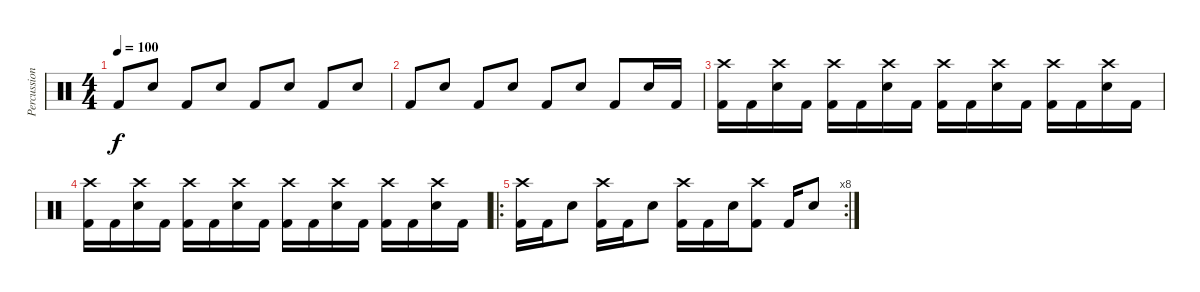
\track ("Percussion" "Percussion") {instrument percussion}
\staff {score}
\articulation defaults
\ts (4 4)
\tempo 100
\clef neutral
\ks c "Kick (hit) 2".8{dy f} "Snare (hit) 2".8 "Kick (hit) 2".8 "Snare (hit) 2".8 "Kick (hit) 2".8 "Snare (hit) 2".8 "Kick (hit) 2".8 "Snare (hit) 2".8
|
"Kick (hit) 2".8 "Snare (hit) 2".8 "Kick (hit) 2".8 "Snare (hit) 2".8 "Kick (hit) 2".8 "Snare (hit) 2".8 "Kick (hit) 2".8 "Snare (hit) 2".16 "Kick (hit) 2".16 |
("Crash high (hit)" "Kick (hit) 2").16 "Kick (hit) 2".16 ("Crash high (hit)" "Snare (hit) 2").16 "Kick (hit) 2".16 ("Crash high (hit)" "Kick (hit) 2").16 "Kick (hit) 2".16 ("Crash high (hit)" "Snare (hit) 2").16 "Kick (hit) 2".16 ("Crash high (hit)" "Kick (hit) 2").16 "Kick (hit) 2".16 ("Crash high (hit)" "Snare (hit) 2").16 "Kick (hit) 2".16 ("Crash high (hit)" "Kick (hit) 2").16 "Kick (hit) 2".16 ("Crash high (hit)" "Snare (hit) 2").16 "Kick (hit) 2".16 |
("Crash high (hit)" "Kick (hit) 2").16 "Kick (hit) 2".16 ("Crash high (hit)" "Snare (hit) 2").16 "Kick (hit) 2".16 ("Crash high (hit)" "Kick (hit) 2").16 "Kick (hit) 2".16 ("Crash high (hit)" "Snare (hit) 2").16 "Kick (hit) 2".16 ("Crash high (hit)" "Kick (hit) 2").16 "Kick (hit) 2".16 ("Crash high (hit)" "Snare (hit) 2").16 "Kick (hit) 2".16 ("Crash high (hit)" "Kick (hit) 2").16 "Kick (hit) 2".16 ("Crash high (hit)" "Snare (hit) 2").16 "Kick (hit) 2".16 |
\ro
\rc 8
("Crash high (hit)" "Kick (hit) 2").16 "Kick (hit) 2".16 "Snare (hit) 2".8 ("Crash high (hit)" "Kick (hit) 2").16 "Kick (hit) 2".16 "Snare (hit) 2".8 ("Crash high (hit)" "Kick (hit) 2").16 "Kick (hit) 2".16 "Snare (hit) 2".16 ("Crash high (hit)" "Kick (hit) 2").8 "Kick (hit) 2".16 "Snare (hit) 2".8
